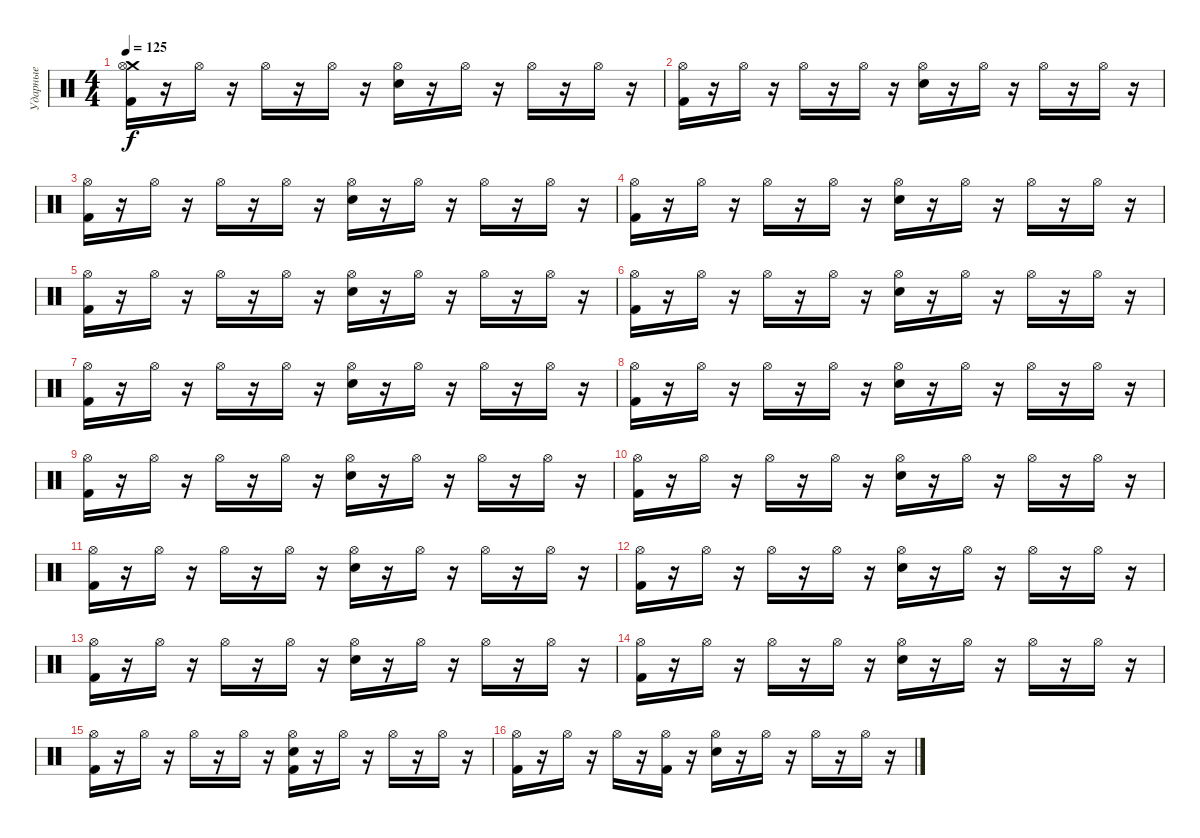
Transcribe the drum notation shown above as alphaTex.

\track ("Ударные" "Ударные") {instrument percussion}
\staff {score}
\articulation defaults
\ts (4 4)
\tempo 125
\clef neutral
\ks c
("Crash medium (hit)" "Hi-Hat (open)" "Kick (hit) 2").16{dy f} r.16 "Hi-Hat (open)".16 r.16 "Hi-Hat (open)".16 r.16 "Hi-Hat (open)".16 r.16 ("Hi-Hat (open)" "Snare (hit) 2").16 r.16 "Hi-Hat (open)".16 r.16 "Hi-Hat (open)".16 r.16 "Hi-Hat (open)".16 r.16 |
("Hi-Hat (open)" "Kick (hit) 2").16 r.16 "Hi-Hat (open)".16 r.16 "Hi-Hat (open)".16 r.16 "Hi-Hat (open)".16 r.16 ("Hi-Hat (open)" "Snare (hit) 2").16 r.16 "Hi-Hat (open)".16 r.16 "Hi-Hat (open)".16 r.16 "Hi-Hat (open)".16 r.16 |
("Hi-Hat (open)" "Kick (hit) 2").16 r.16 "Hi-Hat (open)".16 r.16 "Hi-Hat (open)".16 r.16 "Hi-Hat (open)".16 r.16 ("Hi-Hat (open)" "Snare (hit) 2").16 r.16 "Hi-Hat (open)".16 r.16 "Hi-Hat (open)".16 r.16 "Hi-Hat (open)".16 r.16 |
("Hi-Hat (open)" "Kick (hit) 2").16 r.16 "Hi-Hat (open)".16 r.16 "Hi-Hat (open)".16 r.16 "Hi-Hat (open)".16 r.16 ("Hi-Hat (open)" "Snare (hit) 2").16 r.16 "Hi-Hat (open)".16 r.16 "Hi-Hat (open)".16 r.16 "Hi-Hat (open)".16 r.16 |
("Hi-Hat (open)" "Kick (hit) 2").16 r.16 "Hi-Hat (open)".16 r.16 "Hi-Hat (open)".16 r.16 "Hi-Hat (open)".16 r.16 ("Hi-Hat (open)" "Snare (hit) 2").16 r.16 "Hi-Hat (open)".16 r.16 "Hi-Hat (open)".16 r.16 "Hi-Hat (open)".16 r.16 |
("Hi-Hat (open)" "Kick (hit) 2").16 r.16 "Hi-Hat (open)".16 r.16 "Hi-Hat (open)".16 r.16 "Hi-Hat (open)".16 r.16 ("Hi-Hat (open)" "Snare (hit) 2").16 r.16 "Hi-Hat (open)".16 r.16 "Hi-Hat (open)".16 r.16 "Hi-Hat (open)".16 r.16 |
("Hi-Hat (open)" "Kick (hit) 2").16 r.16 "Hi-Hat (open)".16 r.16 "Hi-Hat (open)".16 r.16 "Hi-Hat (open)".16 r.16 ("Hi-Hat (open)" "Snare (hit) 2").16 r.16 "Hi-Hat (open)".16 r.16 "Hi-Hat (open)".16 r.16 "Hi-Hat (open)".16 r.16 |
("Hi-Hat (open)" "Kick (hit) 2").16 r.16 "Hi-Hat (open)".16 r.16 "Hi-Hat (open)".16 r.16 "Hi-Hat (open)".16 r.16 ("Hi-Hat (open)" "Snare (hit) 2").16 r.16 "Hi-Hat (open)".16 r.16 "Hi-Hat (open)".16 r.16 "Hi-Hat (open)".16 r.16 |
("Hi-Hat (open)" "Kick (hit) 2").16 r.16 "Hi-Hat (open)".16 r.16 "Hi-Hat (open)".16 r.16 "Hi-Hat (open)".16 r.16 ("Hi-Hat (open)" "Snare (hit) 2").16 r.16 "Hi-Hat (open)".16 r.16 "Hi-Hat (open)".16 r.16 "Hi-Hat (open)".16 r.16 |
("Hi-Hat (open)" "Kick (hit) 2").16 r.16 "Hi-Hat (open)".16 r.16 "Hi-Hat (open)".16 r.16 "Hi-Hat (open)".16 r.16 ("Hi-Hat (open)" "Snare (hit) 2").16 r.16 "Hi-Hat (open)".16 r.16 "Hi-Hat (open)".16 r.16 "Hi-Hat (open)".16 r.16 |
("Hi-Hat (open)" "Kick (hit) 2").16 r.16 "Hi-Hat (open)".16 r.16 "Hi-Hat (open)".16 r.16 "Hi-Hat (open)".16 r.16 ("Hi-Hat (open)" "Snare (hit) 2").16 r.16 "Hi-Hat (open)".16 r.16 "Hi-Hat (open)".16 r.16 "Hi-Hat (open)".16 r.16 |
("Hi-Hat (open)" "Kick (hit) 2").16 r.16 "Hi-Hat (open)".16 r.16 "Hi-Hat (open)".16 r.16 "Hi-Hat (open)".16 r.16 ("Hi-Hat (open)" "Snare (hit) 2").16 r.16 "Hi-Hat (open)".16 r.16 "Hi-Hat (open)".16 r.16 "Hi-Hat (open)".16 r.16 |
("Hi-Hat (open)" "Kick (hit) 2").16 r.16 "Hi-Hat (open)".16 r.16 "Hi-Hat (open)".16 r.16 "Hi-Hat (open)".16 r.16 ("Hi-Hat (open)" "Snare (hit) 2").16 r.16 "Hi-Hat (open)".16 r.16 "Hi-Hat (open)".16 r.16 "Hi-Hat (open)".16 r.16 |
("Hi-Hat (open)" "Kick (hit) 2").16 r.16 "Hi-Hat (open)".16 r.16 "Hi-Hat (open)".16 r.16 "Hi-Hat (open)".16 r.16 ("Hi-Hat (open)" "Snare (hit) 2").16 r.16 "Hi-Hat (open)".16 r.16 "Hi-Hat (open)".16 r.16 "Hi-Hat (open)".16 r.16 |
("Hi-Hat (open)" "Kick (hit) 2").16 r.16 "Hi-Hat (open)".16 r.16 "Hi-Hat (open)".16 r.16 "Hi-Hat (open)".16 r.16 ("Hi-Hat (open)" "Snare (hit) 2" "Kick (hit) 2").16 r.16 "Hi-Hat (open)".16 r.16 "Hi-Hat (open)".16 r.16 "Hi-Hat (open)".16 r.16 |
("Hi-Hat (open)" "Kick (hit) 2").16 r.16 "Hi-Hat (open)".16 r.16 "Hi-Hat (open)".16 r.16 ("Hi-Hat (open)" "Kick (hit) 2").16 r.16 ("Hi-Hat (open)" "Snare (hit) 2").16 r.16 "Hi-Hat (open)".16 r.16 "Hi-Hat (open)".16 r.16 "Hi-Hat (open)".16 r.16
